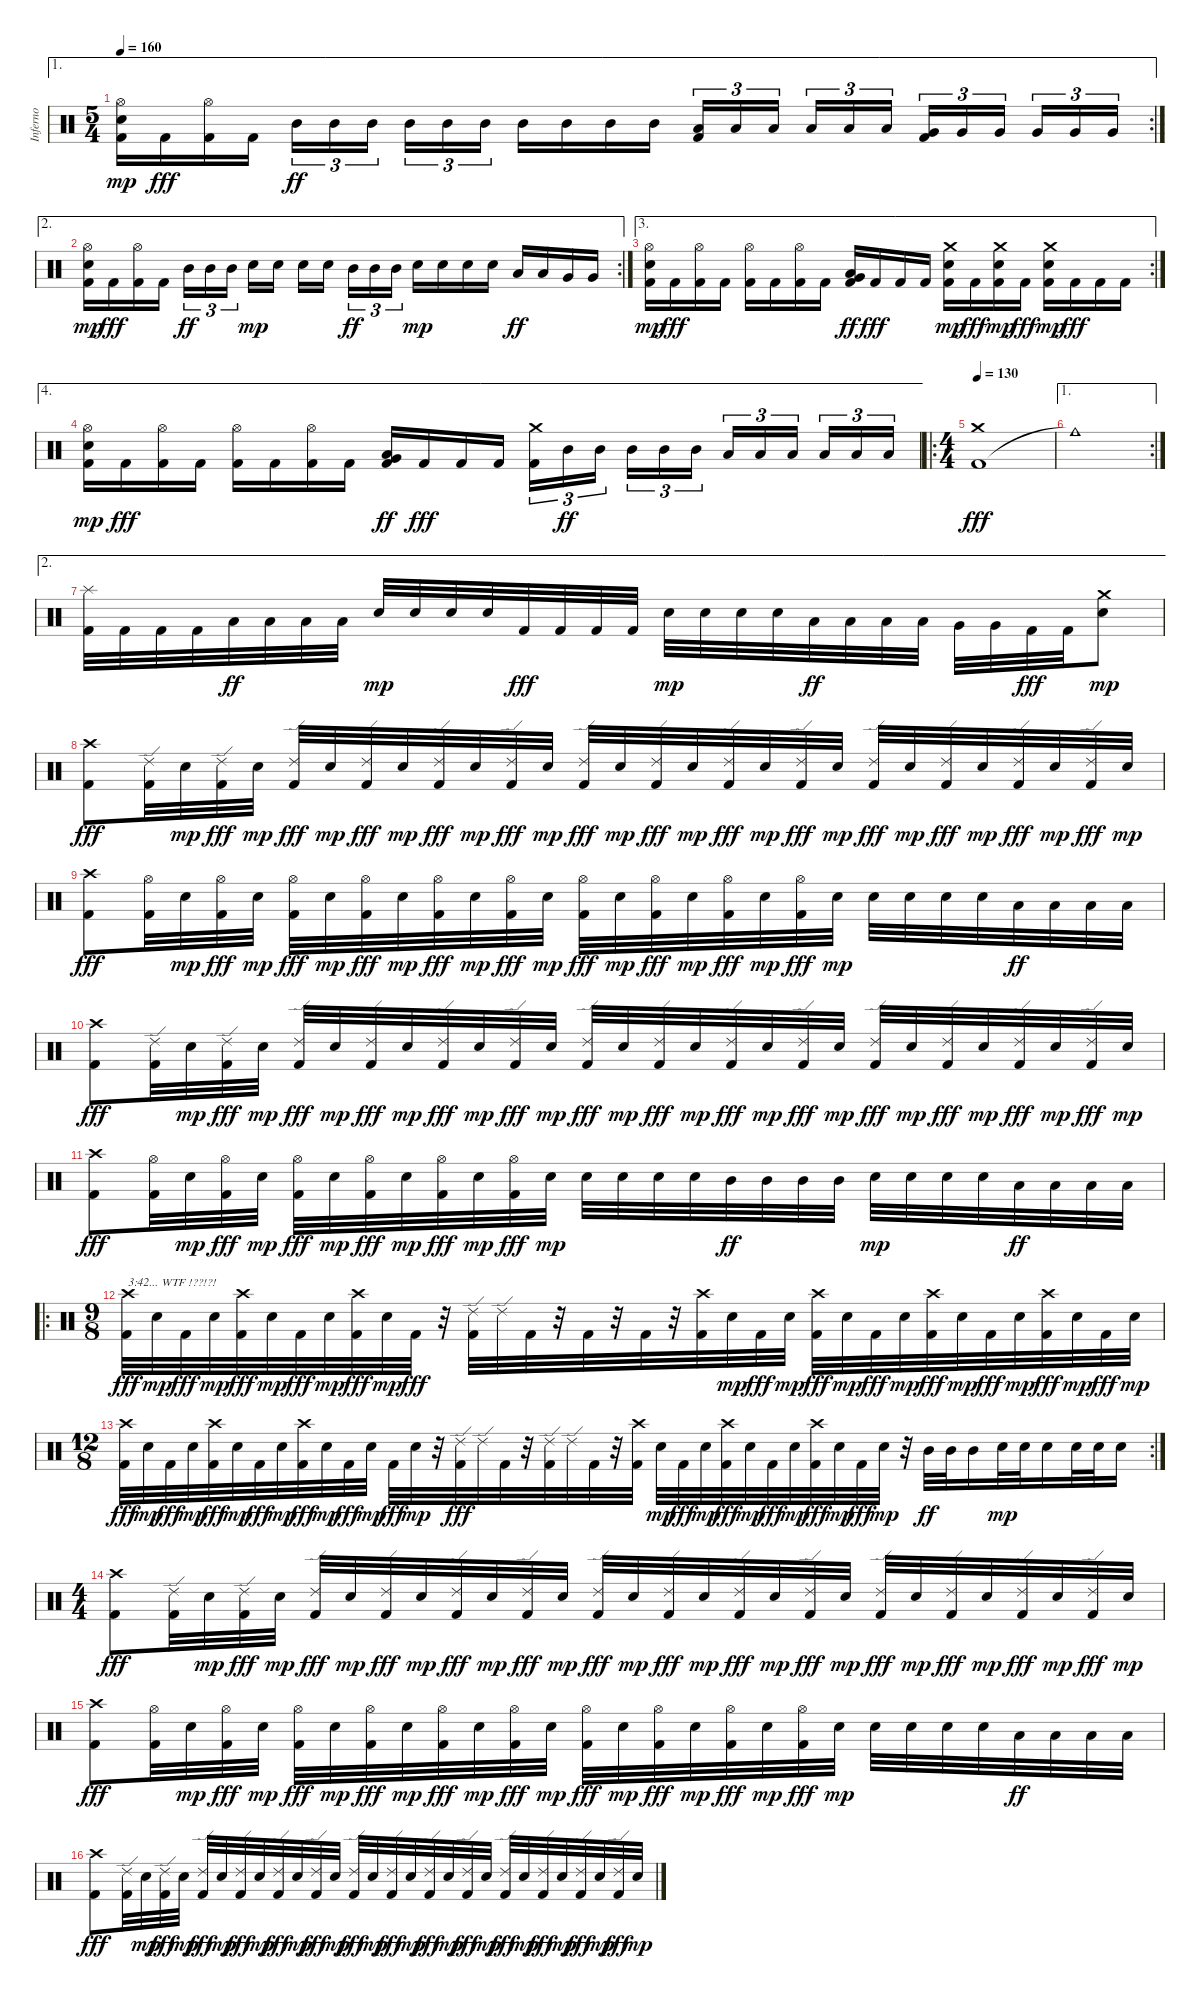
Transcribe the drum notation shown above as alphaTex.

\track ("Inferno" "Inferno") {instrument percussion}
\staff {score}
\articulation defaults
\ae 1
\rc 2
\ts (5 4)
\tempo 160
\clef neutral
\ks c
("Kick (hit) 2" "Hi-Hat (open)" "Electric Snare (hit)").16{dy mp} "Kick (hit) 2".16{dy fff} ("Kick (hit) 2" "Hi-Hat (open)").16 "Kick (hit) 2".16 "Mid Tom (hit)".16{tu (3 2) dy ff} "Mid Tom (hit)".16{tu (3 2)} "Mid Tom (hit)".16{tu (3 2) beam splitsecondary} "Mid Tom (hit)".16{tu (3 2)} "Mid Tom (hit)".16{tu (3 2)} "Mid Tom (hit)".16{tu (3 2)} "Mid Tom (hit)".16 "Mid Tom (hit)".16 "Mid Tom (hit)".16 "Mid Tom (hit)".16 ("Kick (hit) 2" "Low Tom (hit)").16{tu (3 2)} "Low Tom (hit)".16{tu (3 2)} "Low Tom (hit)".16{tu (3 2) beam splitsecondary} "Low Tom (hit)".16{tu (3 2)} "Low Tom (hit)".16{tu (3 2)} "Low Tom (hit)".16{tu (3 2)} ("Kick (hit) 2" "Very Low Tom (hit)").16{tu (3 2)} "Very Low Tom (hit)".16{tu (3 2)} "Very Low Tom (hit)".16{tu (3 2) beam splitsecondary} "Very Low Tom (hit)".16{tu (3 2)} "Very Low Tom (hit)".16{tu (3 2)} "Very Low Tom (hit)".16{tu (3 2)} |
\ae 2
\rc 2
("Kick (hit) 2" "Hi-Hat (open)" "Electric Snare (hit)").16{dy mp} "Kick (hit) 2".16{dy fff} ("Kick (hit) 2" "Hi-Hat (open)").16 "Kick (hit) 2".16 "Mid Tom (hit)".16{tu (3 2) dy ff} "Mid Tom (hit)".16{tu (3 2)} "Mid Tom (hit)".16{tu (3 2) beam splitsecondary} "Electric Snare (hit)".16{dy mp} "Electric Snare (hit)".16 "Electric Snare (hit)".16 "Electric Snare (hit)".16{beam splitsecondary} "Mid Tom (hit)".16{tu (3 2) dy ff} "Mid Tom (hit)".16{tu (3 2)} "Mid Tom (hit)".16{tu (3 2)} "Electric Snare (hit)".16{dy mp} "Electric Snare (hit)".16 "Electric Snare (hit)".16 "Electric Snare (hit)".16 "Low Tom (hit)".16{dy ff} "Low Tom (hit)".16 "Very Low Tom (hit)".16 "Very Low Tom (hit)".16 |
\ae 3
\rc 2
("Kick (hit) 2" "Hi-Hat (open)" "Electric Snare (hit)").16{dy mp} "Kick (hit) 2".16{dy fff} ("Kick (hit) 2" "Hi-Hat (open)").16 "Kick (hit) 2".16 ("Kick (hit) 2" "Hi-Hat (open)").16 "Kick (hit) 2".16 ("Kick (hit) 2" "Hi-Hat (open)").16 "Kick (hit) 2".16 ("Kick (hit) 2" "Low Tom (hit)" "Very Low Tom (hit)").16{dy ff} "Kick (hit) 2".16{dy fff} "Kick (hit) 2".16 "Kick (hit) 2".16 ("Kick (hit) 2" "Crash medium (hit)" "Electric Snare (hit)").16{dy mp} "Kick (hit) 2".16{dy fff} ("Kick (hit) 2" "Crash medium (hit)" "Electric Snare (hit)").16{dy mp} "Kick (hit) 2".16{dy fff} ("Kick (hit) 2" "Crash medium (hit)" "Electric Snare (hit)").16{dy mp} "Kick (hit) 2".16{dy fff} "Kick (hit) 2".16 "Kick (hit) 2".16 |
\ae 4
("Kick (hit) 2" "Hi-Hat (open)" "Electric Snare (hit)").16{dy mp} "Kick (hit) 2".16{dy fff} ("Kick (hit) 2" "Hi-Hat (open)").16 "Kick (hit) 2".16 ("Kick (hit) 2" "Hi-Hat (open)").16 "Kick (hit) 2".16 ("Kick (hit) 2" "Hi-Hat (open)").16 "Kick (hit) 2".16 ("Kick (hit) 2" "Low Tom (hit)" "Very Low Tom (hit)").16{dy ff} "Kick (hit) 2".16{dy fff} "Kick (hit) 2".16 "Kick (hit) 2".16 ("Kick (hit) 2" "Crash medium (hit)").16{tu (3 2)} "Mid Tom (hit)".16{tu (3 2) dy ff} "Mid Tom (hit)".16{tu (3 2) beam splitsecondary} "Mid Tom (hit)".16{tu (3 2)} "Mid Tom (hit)".16{tu (3 2)} "Mid Tom (hit)".16{tu (3 2)} "Low Tom (hit)".16{tu (3 2)} "Low Tom (hit)".16{tu (3 2)} "Low Tom (hit)".16{tu (3 2) beam splitsecondary} "Low Tom (hit)".16{tu (3 2)} "Low Tom (hit)".16{tu (3 2)} "Low Tom (hit)".16{tu (3 2)} |
\ro
\ts (4 4)
\tempo 130
("Kick (hit) 2" "Crash medium (hit)").1{dy fff} |
\ae 1
\rc 2 "Cowbell medium (hit)"{t}.1
|
\ae 2
("Kick (hit) 2" "Splash (hit)").32 "Kick (hit) 2".32 "Kick (hit) 2".32 "Kick (hit) 2".32 "Low Tom (hit)".32{dy ff} "Low Tom (hit)".32 "Low Tom (hit)".32 "Low Tom (hit)".32 "Electric Snare (hit)".32{dy mp} "Electric Snare (hit)".32 "Electric Snare (hit)".32 "Electric Snare (hit)".32 "Kick (hit) 2".32{dy fff} "Kick (hit) 2".32 "Kick (hit) 2".32 "Kick (hit) 2".32 "Electric Snare (hit)".32{dy mp} "Electric Snare (hit)".32 "Electric Snare (hit)".32 "Electric Snare (hit)".32 "Low Tom (hit)".32{dy ff} "Low Tom (hit)".32 "Low Tom (hit)".32 "Low Tom (hit)".32 "Very Low Tom (hit)".32 "Very Low Tom (hit)".32 "Kick (hit) 2".32{dy fff} "Kick (hit) 2".32 ("Crash medium (hit)" "Electric Snare (hit)").8{dy mp} |
("Kick (hit) 2" "Crash high (hit)").8{dy fff} ("Kick (hit) 2" "Ride (edge) 2").32 "Electric Snare (hit)".32{dy mp} ("Kick (hit) 2" "Ride (edge) 2").32{dy fff} "Electric Snare (hit)".32{dy mp} ("Kick (hit) 2" "Ride (edge) 2").32{dy fff} "Electric Snare (hit)".32{dy mp} ("Kick (hit) 2" "Ride (edge) 2").32{dy fff} "Electric Snare (hit)".32{dy mp} ("Kick (hit) 2" "Ride (edge) 2").32{dy fff} "Electric Snare (hit)".32{dy mp} ("Kick (hit) 2" "Ride (edge) 2").32{dy fff} "Electric Snare (hit)".32{dy mp} ("Kick (hit) 2" "Ride (edge) 2").32{dy fff} "Electric Snare (hit)".32{dy mp} ("Kick (hit) 2" "Ride (edge) 2").32{dy fff} "Electric Snare (hit)".32{dy mp} ("Kick (hit) 2" "Ride (edge) 2").32{dy fff} "Electric Snare (hit)".32{dy mp} ("Kick (hit) 2" "Ride (edge) 2").32{dy fff} "Electric Snare (hit)".32{dy mp} ("Kick (hit) 2" "Ride (edge) 2").32{dy fff} "Electric Snare (hit)".32{dy mp} ("Kick (hit) 2" "Ride (edge) 2").32{dy fff} "Electric Snare (hit)".32{dy mp} ("Kick (hit) 2" "Ride (edge) 2").32{dy fff} "Electric Snare (hit)".32{dy mp} ("Kick (hit) 2" "Ride (edge) 2").32{dy fff} "Electric Snare (hit)".32{dy mp} |
("Kick (hit) 2" "Crash high (hit)").8{dy fff} ("Kick (hit) 2" "Hi-Hat (open)").32 "Electric Snare (hit)".32{dy mp} ("Kick (hit) 2" "Hi-Hat (open)").32{dy fff} "Electric Snare (hit)".32{dy mp} ("Kick (hit) 2" "Hi-Hat (open)").32{dy fff} "Electric Snare (hit)".32{dy mp} ("Kick (hit) 2" "Hi-Hat (open)").32{dy fff} "Electric Snare (hit)".32{dy mp} ("Kick (hit) 2" "Hi-Hat (open)").32{dy fff} "Electric Snare (hit)".32{dy mp} ("Kick (hit) 2" "Hi-Hat (open)").32{dy fff} "Electric Snare (hit)".32{dy mp} ("Kick (hit) 2" "Hi-Hat (open)").32{dy fff} "Electric Snare (hit)".32{dy mp} ("Kick (hit) 2" "Hi-Hat (open)").32{dy fff} "Electric Snare (hit)".32{dy mp} ("Kick (hit) 2" "Hi-Hat (open)").32{dy fff} "Electric Snare (hit)".32{dy mp} ("Kick (hit) 2" "Hi-Hat (open)").32{dy fff} "Electric Snare (hit)".32{dy mp} "Electric Snare (hit)".32 "Electric Snare (hit)".32 "Electric Snare (hit)".32 "Electric Snare (hit)".32 "Low Tom (hit)".32{dy ff} "Low Tom (hit)".32 "Low Tom (hit)".32 "Low Tom (hit)".32 |
("Kick (hit) 2" "Crash high (hit)").8{dy fff} ("Kick (hit) 2" "Ride (edge) 2").32 "Electric Snare (hit)".32{dy mp} ("Kick (hit) 2" "Ride (edge) 2").32{dy fff} "Electric Snare (hit)".32{dy mp} ("Kick (hit) 2" "Ride (edge) 2").32{dy fff} "Electric Snare (hit)".32{dy mp} ("Kick (hit) 2" "Ride (edge) 2").32{dy fff} "Electric Snare (hit)".32{dy mp} ("Kick (hit) 2" "Ride (edge) 2").32{dy fff} "Electric Snare (hit)".32{dy mp} ("Kick (hit) 2" "Ride (edge) 2").32{dy fff} "Electric Snare (hit)".32{dy mp} ("Kick (hit) 2" "Ride (edge) 2").32{dy fff} "Electric Snare (hit)".32{dy mp} ("Kick (hit) 2" "Ride (edge) 2").32{dy fff} "Electric Snare (hit)".32{dy mp} ("Kick (hit) 2" "Ride (edge) 2").32{dy fff} "Electric Snare (hit)".32{dy mp} ("Kick (hit) 2" "Ride (edge) 2").32{dy fff} "Electric Snare (hit)".32{dy mp} ("Kick (hit) 2" "Ride (edge) 2").32{dy fff} "Electric Snare (hit)".32{dy mp} ("Kick (hit) 2" "Ride (edge) 2").32{dy fff} "Electric Snare (hit)".32{dy mp} ("Kick (hit) 2" "Ride (edge) 2").32{dy fff} "Electric Snare (hit)".32{dy mp} ("Kick (hit) 2" "Ride (edge) 2").32{dy fff} "Electric Snare (hit)".32{dy mp} |
("Kick (hit) 2" "Crash high (hit)").8{dy fff} ("Kick (hit) 2" "Hi-Hat (open)").32 "Electric Snare (hit)".32{dy mp} ("Kick (hit) 2" "Hi-Hat (open)").32{dy fff} "Electric Snare (hit)".32{dy mp} ("Kick (hit) 2" "Hi-Hat (open)").32{dy fff} "Electric Snare (hit)".32{dy mp} ("Kick (hit) 2" "Hi-Hat (open)").32{dy fff} "Electric Snare (hit)".32{dy mp} ("Kick (hit) 2" "Hi-Hat (open)").32{dy fff} "Electric Snare (hit)".32{dy mp} ("Kick (hit) 2" "Hi-Hat (open)").32{dy fff} "Electric Snare (hit)".32{dy mp} "Electric Snare (hit)".32 "Electric Snare (hit)".32 "Electric Snare (hit)".32 "Electric Snare (hit)".32 "Mid Tom (hit)".32{dy ff} "Mid Tom (hit)".32 "Mid Tom (hit)".32 "Mid Tom (hit)".32 "Electric Snare (hit)".32{dy mp} "Electric Snare (hit)".32 "Electric Snare (hit)".32 "Electric Snare (hit)".32 "Low Tom (hit)".32{dy ff} "Low Tom (hit)".32 "Low Tom (hit)".32 "Low Tom (hit)".32 |
\ro
\ts (9 8)
("Kick (hit) 2" "Crash high (hit)").32{txt "3:42... WTF !??!?!" dy fff} "Electric Snare (hit)".32{dy mp} "Kick (hit) 2".32{dy fff} "Electric Snare (hit)".32{dy mp} ("Kick (hit) 2" "Crash high (hit)").32{dy fff} "Electric Snare (hit)".32{dy mp} "Kick (hit) 2".32{dy fff} "Electric Snare (hit)".32{dy mp} ("Kick (hit) 2" "Crash high (hit)").32{dy fff} "Electric Snare (hit)".32{dy mp} "Kick (hit) 2".32{dy fff} r.32 ("Kick (hit) 2" "Ride (edge) 2").32 "Ride (edge) 2".32 "Kick (hit) 2".32 r.32 "Kick (hit) 2".32 r.32 "Kick (hit) 2".32 r.32 ("Kick (hit) 2" "Crash high (hit)").32 "Electric Snare (hit)".32{dy mp} "Kick (hit) 2".32{dy fff} "Electric Snare (hit)".32{dy mp} ("Kick (hit) 2" "Crash high (hit)").32{dy fff} "Electric Snare (hit)".32{dy mp} "Kick (hit) 2".32{dy fff} "Electric Snare (hit)".32{dy mp} ("Kick (hit) 2" "Crash high (hit)").32{dy fff} "Electric Snare (hit)".32{dy mp} "Kick (hit) 2".32{dy fff} "Electric Snare (hit)".32{dy mp} ("Kick (hit) 2" "Crash high (hit)").32{dy fff} "Electric Snare (hit)".32{dy mp} "Kick (hit) 2".32{dy fff} "Electric Snare (hit)".32{dy mp} |
\rc 2
\ts (12 8)
("Kick (hit) 2" "Crash high (hit)").32{dy fff} "Electric Snare (hit)".32{dy mp} "Kick (hit) 2".32{dy fff} "Electric Snare (hit)".32{dy mp} ("Kick (hit) 2" "Crash high (hit)").32{dy fff} "Electric Snare (hit)".32{dy mp} "Kick (hit) 2".32{dy fff} "Electric Snare (hit)".32{dy mp} ("Kick (hit) 2" "Crash high (hit)").32{dy fff} "Electric Snare (hit)".32{dy mp} "Kick (hit) 2".32{dy fff} "Electric Snare (hit)".32{dy mp} "Kick (hit) 2".32{dy fff} "Electric Snare (hit)".32{dy mp} r.32 ("Kick (hit) 2" "Ride (edge) 2").32{dy fff} "Ride (edge) 2".32 "Kick (hit) 2".32 r.32 ("Kick (hit) 2" "Ride (edge) 2").32 "Ride (edge) 2".32 "Kick (hit) 2".32 r.32 ("Kick (hit) 2" "Crash high (hit)").32 "Electric Snare (hit)".32{dy mp} "Kick (hit) 2".32{dy fff} "Electric Snare (hit)".32{dy mp} ("Kick (hit) 2" "Crash high (hit)").32{dy fff} "Electric Snare (hit)".32{dy mp} "Kick (hit) 2".32{dy fff} "Electric Snare (hit)".32{dy mp} ("Kick (hit) 2" "Crash high (hit)").32{dy fff} "Electric Snare (hit)".32{dy mp} "Kick (hit) 2".32{dy fff} "Electric Snare (hit)".32{dy mp} r.32 "Mid Tom (hit)".32{dy ff} "Mid Tom (hit)".32 "Mid Tom (hit)".16 "Electric Snare (hit)".32{dy mp} "Electric Snare (hit)".32 "Electric Snare (hit)".16 "Electric Snare (hit)".32 "Electric Snare (hit)".32 "Electric Snare (hit)".16 |
\ts (4 4)
("Kick (hit) 2" "Crash high (hit)").8{dy fff} ("Kick (hit) 2" "Ride (edge) 2").32 "Electric Snare (hit)".32{dy mp} ("Kick (hit) 2" "Ride (edge) 2").32{dy fff} "Electric Snare (hit)".32{dy mp} ("Kick (hit) 2" "Ride (edge) 2").32{dy fff} "Electric Snare (hit)".32{dy mp} ("Kick (hit) 2" "Ride (edge) 2").32{dy fff} "Electric Snare (hit)".32{dy mp} ("Kick (hit) 2" "Ride (edge) 2").32{dy fff} "Electric Snare (hit)".32{dy mp} ("Kick (hit) 2" "Ride (edge) 2").32{dy fff} "Electric Snare (hit)".32{dy mp} ("Kick (hit) 2" "Ride (edge) 2").32{dy fff} "Electric Snare (hit)".32{dy mp} ("Kick (hit) 2" "Ride (edge) 2").32{dy fff} "Electric Snare (hit)".32{dy mp} ("Kick (hit) 2" "Ride (edge) 2").32{dy fff} "Electric Snare (hit)".32{dy mp} ("Kick (hit) 2" "Ride (edge) 2").32{dy fff} "Electric Snare (hit)".32{dy mp} ("Kick (hit) 2" "Ride (edge) 2").32{dy fff} "Electric Snare (hit)".32{dy mp} ("Kick (hit) 2" "Ride (edge) 2").32{dy fff} "Electric Snare (hit)".32{dy mp} ("Kick (hit) 2" "Ride (edge) 2").32{dy fff} "Electric Snare (hit)".32{dy mp} ("Kick (hit) 2" "Ride (edge) 2").32{dy fff} "Electric Snare (hit)".32{dy mp} |
("Kick (hit) 2" "Crash high (hit)").8{dy fff} ("Kick (hit) 2" "Hi-Hat (open)").32 "Electric Snare (hit)".32{dy mp} ("Kick (hit) 2" "Hi-Hat (open)").32{dy fff} "Electric Snare (hit)".32{dy mp} ("Kick (hit) 2" "Hi-Hat (open)").32{dy fff} "Electric Snare (hit)".32{dy mp} ("Kick (hit) 2" "Hi-Hat (open)").32{dy fff} "Electric Snare (hit)".32{dy mp} ("Kick (hit) 2" "Hi-Hat (open)").32{dy fff} "Electric Snare (hit)".32{dy mp} ("Kick (hit) 2" "Hi-Hat (open)").32{dy fff} "Electric Snare (hit)".32{dy mp} ("Kick (hit) 2" "Hi-Hat (open)").32{dy fff} "Electric Snare (hit)".32{dy mp} ("Kick (hit) 2" "Hi-Hat (open)").32{dy fff} "Electric Snare (hit)".32{dy mp} ("Kick (hit) 2" "Hi-Hat (open)").32{dy fff} "Electric Snare (hit)".32{dy mp} ("Kick (hit) 2" "Hi-Hat (open)").32{dy fff} "Electric Snare (hit)".32{dy mp} "Electric Snare (hit)".32 "Electric Snare (hit)".32 "Electric Snare (hit)".32 "Electric Snare (hit)".32 "Low Tom (hit)".32{dy ff} "Low Tom (hit)".32 "Low Tom (hit)".32 "Low Tom (hit)".32 |
("Kick (hit) 2" "Crash high (hit)").8{dy fff} ("Kick (hit) 2" "Ride (edge) 2").32 "Electric Snare (hit)".32{dy mp} ("Kick (hit) 2" "Ride (edge) 2").32{dy fff} "Electric Snare (hit)".32{dy mp} ("Kick (hit) 2" "Ride (edge) 2").32{dy fff} "Electric Snare (hit)".32{dy mp} ("Kick (hit) 2" "Ride (edge) 2").32{dy fff} "Electric Snare (hit)".32{dy mp} ("Kick (hit) 2" "Ride (edge) 2").32{dy fff} "Electric Snare (hit)".32{dy mp} ("Kick (hit) 2" "Ride (edge) 2").32{dy fff} "Electric Snare (hit)".32{dy mp} ("Kick (hit) 2" "Ride (edge) 2").32{dy fff} "Electric Snare (hit)".32{dy mp} ("Kick (hit) 2" "Ride (edge) 2").32{dy fff} "Electric Snare (hit)".32{dy mp} ("Kick (hit) 2" "Ride (edge) 2").32{dy fff} "Electric Snare (hit)".32{dy mp} ("Kick (hit) 2" "Ride (edge) 2").32{dy fff} "Electric Snare (hit)".32{dy mp} ("Kick (hit) 2" "Ride (edge) 2").32{dy fff} "Electric Snare (hit)".32{dy mp} ("Kick (hit) 2" "Ride (edge) 2").32{dy fff} "Electric Snare (hit)".32{dy mp} ("Kick (hit) 2" "Ride (edge) 2").32{dy fff} "Electric Snare (hit)".32{dy mp} ("Kick (hit) 2" "Ride (edge) 2").32{dy fff} "Electric Snare (hit)".32{dy mp}
